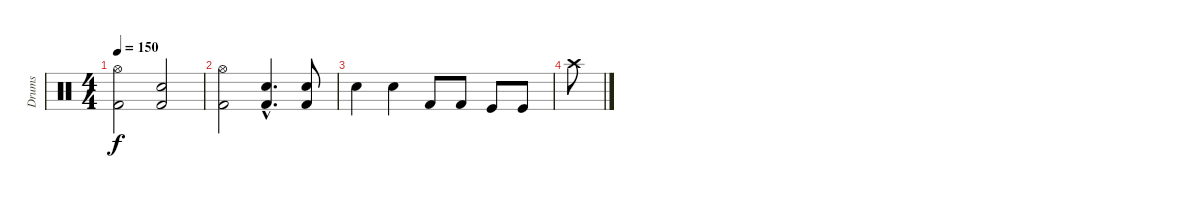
\track ("Drums" "Drums") {instrument percussion}
\staff {score}
\articulation defaults
\ts (4 4)
\tempo 150
\clef neutral
\ks c
("Hi-Hat (open)" "Kick (hit) 2").2{dy f} ("Electric Snare (hit)" "Kick (hit) 2").2 |
("Hi-Hat (open)" "Kick (hit) 2").2 ("Electric Snare (hit)"{hac} "Kick (hit) 2"{hac}).4{d} ("Snare (hit) 2" "Kick (hit) 2").8 |
"Snare (hit) 2".4 "Snare (hit) 2".4 "Kick (hit) 2".8 "Kick (hit) 2".8 "Kick (hit)".8 "Kick (hit)".8 |
"Crash high (hit)".8
